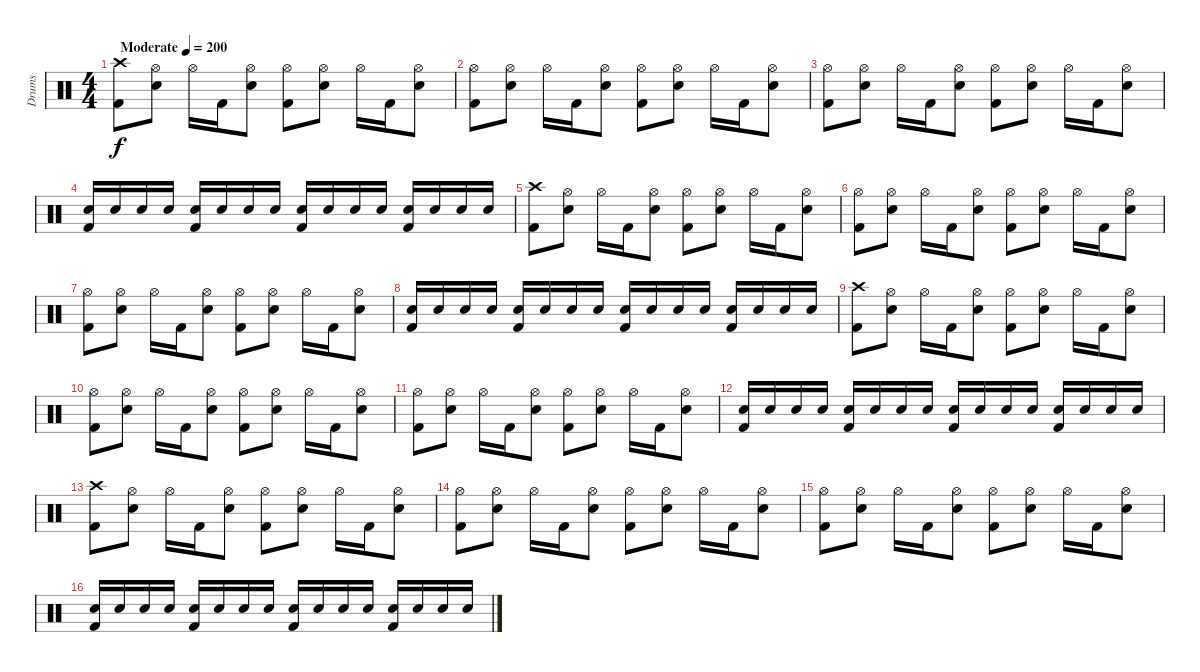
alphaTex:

\track ("Drums" "Drums") {instrument percussion}
\staff {score}
\articulation defaults
\ts (4 4)
\tempo (200 "Moderate")
\clef neutral
\ks c
("Crash high (hit)" "Kick (hit) 2").8{dy f} ("Hi-Hat (open)" "Electric Snare (hit)").8 "Hi-Hat (open)".16 "Kick (hit) 2".16 ("Hi-Hat (open)" "Electric Snare (hit)").8 ("Hi-Hat (open)" "Kick (hit) 2").8 ("Hi-Hat (open)" "Electric Snare (hit)").8 "Hi-Hat (open)".16 "Kick (hit) 2".16 ("Hi-Hat (open)" "Electric Snare (hit)").8 |
("Hi-Hat (open)" "Kick (hit) 2").8 ("Hi-Hat (open)" "Electric Snare (hit)").8 "Hi-Hat (open)".16 "Kick (hit) 2".16 ("Hi-Hat (open)" "Electric Snare (hit)").8 ("Hi-Hat (open)" "Kick (hit) 2").8 ("Hi-Hat (open)" "Electric Snare (hit)").8 "Hi-Hat (open)".16 "Kick (hit) 2".16 ("Hi-Hat (open)" "Electric Snare (hit)").8 |
("Hi-Hat (open)" "Kick (hit) 2").8 ("Hi-Hat (open)" "Electric Snare (hit)").8 "Hi-Hat (open)".16 "Kick (hit) 2".16 ("Hi-Hat (open)" "Electric Snare (hit)").8 ("Hi-Hat (open)" "Kick (hit) 2").8 ("Hi-Hat (open)" "Electric Snare (hit)").8 "Hi-Hat (open)".16 "Kick (hit) 2".16 ("Hi-Hat (open)" "Electric Snare (hit)").8 |
("Electric Snare (hit)" "Kick (hit) 2").16 "Electric Snare (hit)".16 "Electric Snare (hit)".16 "Electric Snare (hit)".16 ("Electric Snare (hit)" "Kick (hit) 2").16 "Electric Snare (hit)".16 "Electric Snare (hit)".16 "Electric Snare (hit)".16 ("Electric Snare (hit)" "Kick (hit) 2").16 "Electric Snare (hit)".16 "Electric Snare (hit)".16 "Electric Snare (hit)".16 ("Electric Snare (hit)" "Kick (hit) 2").16 "Electric Snare (hit)".16 "Electric Snare (hit)".16 "Electric Snare (hit)".16 |
("Crash high (hit)" "Kick (hit) 2").8 ("Hi-Hat (open)" "Electric Snare (hit)").8 "Hi-Hat (open)".16 "Kick (hit) 2".16 ("Hi-Hat (open)" "Electric Snare (hit)").8 ("Hi-Hat (open)" "Kick (hit) 2").8 ("Hi-Hat (open)" "Electric Snare (hit)").8 "Hi-Hat (open)".16 "Kick (hit) 2".16 ("Hi-Hat (open)" "Electric Snare (hit)").8 |
("Hi-Hat (open)" "Kick (hit) 2").8 ("Hi-Hat (open)" "Electric Snare (hit)").8 "Hi-Hat (open)".16 "Kick (hit) 2".16 ("Hi-Hat (open)" "Electric Snare (hit)").8 ("Hi-Hat (open)" "Kick (hit) 2").8 ("Hi-Hat (open)" "Electric Snare (hit)").8 "Hi-Hat (open)".16 "Kick (hit) 2".16 ("Hi-Hat (open)" "Electric Snare (hit)").8 |
("Hi-Hat (open)" "Kick (hit) 2").8 ("Hi-Hat (open)" "Electric Snare (hit)").8 "Hi-Hat (open)".16 "Kick (hit) 2".16 ("Hi-Hat (open)" "Electric Snare (hit)").8 ("Hi-Hat (open)" "Kick (hit) 2").8 ("Hi-Hat (open)" "Electric Snare (hit)").8 "Hi-Hat (open)".16 "Kick (hit) 2".16 ("Hi-Hat (open)" "Electric Snare (hit)").8 |
("Electric Snare (hit)" "Kick (hit) 2").16 "Electric Snare (hit)".16 "Electric Snare (hit)".16 "Electric Snare (hit)".16 ("Electric Snare (hit)" "Kick (hit) 2").16 "Electric Snare (hit)".16 "Electric Snare (hit)".16 "Electric Snare (hit)".16 ("Electric Snare (hit)" "Kick (hit) 2").16 "Electric Snare (hit)".16 "Electric Snare (hit)".16 "Electric Snare (hit)".16 ("Electric Snare (hit)" "Kick (hit) 2").16 "Electric Snare (hit)".16 "Electric Snare (hit)".16 "Electric Snare (hit)".16 |
("Crash high (hit)" "Kick (hit) 2").8 ("Hi-Hat (open)" "Electric Snare (hit)").8 "Hi-Hat (open)".16 "Kick (hit) 2".16 ("Hi-Hat (open)" "Electric Snare (hit)").8 ("Hi-Hat (open)" "Kick (hit) 2").8 ("Hi-Hat (open)" "Electric Snare (hit)").8 "Hi-Hat (open)".16 "Kick (hit) 2".16 ("Hi-Hat (open)" "Electric Snare (hit)").8 |
("Hi-Hat (open)" "Kick (hit) 2").8 ("Hi-Hat (open)" "Electric Snare (hit)").8 "Hi-Hat (open)".16 "Kick (hit) 2".16 ("Hi-Hat (open)" "Electric Snare (hit)").8 ("Hi-Hat (open)" "Kick (hit) 2").8 ("Hi-Hat (open)" "Electric Snare (hit)").8 "Hi-Hat (open)".16 "Kick (hit) 2".16 ("Hi-Hat (open)" "Electric Snare (hit)").8 |
("Hi-Hat (open)" "Kick (hit) 2").8 ("Hi-Hat (open)" "Electric Snare (hit)").8 "Hi-Hat (open)".16 "Kick (hit) 2".16 ("Hi-Hat (open)" "Electric Snare (hit)").8 ("Hi-Hat (open)" "Kick (hit) 2").8 ("Hi-Hat (open)" "Electric Snare (hit)").8 "Hi-Hat (open)".16 "Kick (hit) 2".16 ("Hi-Hat (open)" "Electric Snare (hit)").8 |
("Electric Snare (hit)" "Kick (hit) 2").16 "Electric Snare (hit)".16 "Electric Snare (hit)".16 "Electric Snare (hit)".16 ("Electric Snare (hit)" "Kick (hit) 2").16 "Electric Snare (hit)".16 "Electric Snare (hit)".16 "Electric Snare (hit)".16 ("Electric Snare (hit)" "Kick (hit) 2").16 "Electric Snare (hit)".16 "Electric Snare (hit)".16 "Electric Snare (hit)".16 ("Electric Snare (hit)" "Kick (hit) 2").16 "Electric Snare (hit)".16 "Electric Snare (hit)".16 "Electric Snare (hit)".16 |
("Crash high (hit)" "Kick (hit) 2").8 ("Hi-Hat (open)" "Electric Snare (hit)").8 "Hi-Hat (open)".16 "Kick (hit) 2".16 ("Hi-Hat (open)" "Electric Snare (hit)").8 ("Hi-Hat (open)" "Kick (hit) 2").8 ("Hi-Hat (open)" "Electric Snare (hit)").8 "Hi-Hat (open)".16 "Kick (hit) 2".16 ("Hi-Hat (open)" "Electric Snare (hit)").8 |
("Hi-Hat (open)" "Kick (hit) 2").8 ("Hi-Hat (open)" "Electric Snare (hit)").8 "Hi-Hat (open)".16 "Kick (hit) 2".16 ("Hi-Hat (open)" "Electric Snare (hit)").8 ("Hi-Hat (open)" "Kick (hit) 2").8 ("Hi-Hat (open)" "Electric Snare (hit)").8 "Hi-Hat (open)".16 "Kick (hit) 2".16 ("Hi-Hat (open)" "Electric Snare (hit)").8 |
("Hi-Hat (open)" "Kick (hit) 2").8 ("Hi-Hat (open)" "Electric Snare (hit)").8 "Hi-Hat (open)".16 "Kick (hit) 2".16 ("Hi-Hat (open)" "Electric Snare (hit)").8 ("Hi-Hat (open)" "Kick (hit) 2").8 ("Hi-Hat (open)" "Electric Snare (hit)").8 "Hi-Hat (open)".16 "Kick (hit) 2".16 ("Hi-Hat (open)" "Electric Snare (hit)").8 |
("Electric Snare (hit)" "Kick (hit) 2").16 "Electric Snare (hit)".16 "Electric Snare (hit)".16 "Electric Snare (hit)".16 ("Electric Snare (hit)" "Kick (hit) 2").16 "Electric Snare (hit)".16 "Electric Snare (hit)".16 "Electric Snare (hit)".16 ("Electric Snare (hit)" "Kick (hit) 2").16 "Electric Snare (hit)".16 "Electric Snare (hit)".16 "Electric Snare (hit)".16 ("Electric Snare (hit)" "Kick (hit) 2").16 "Electric Snare (hit)".16 "Electric Snare (hit)".16 "Electric Snare (hit)".16
